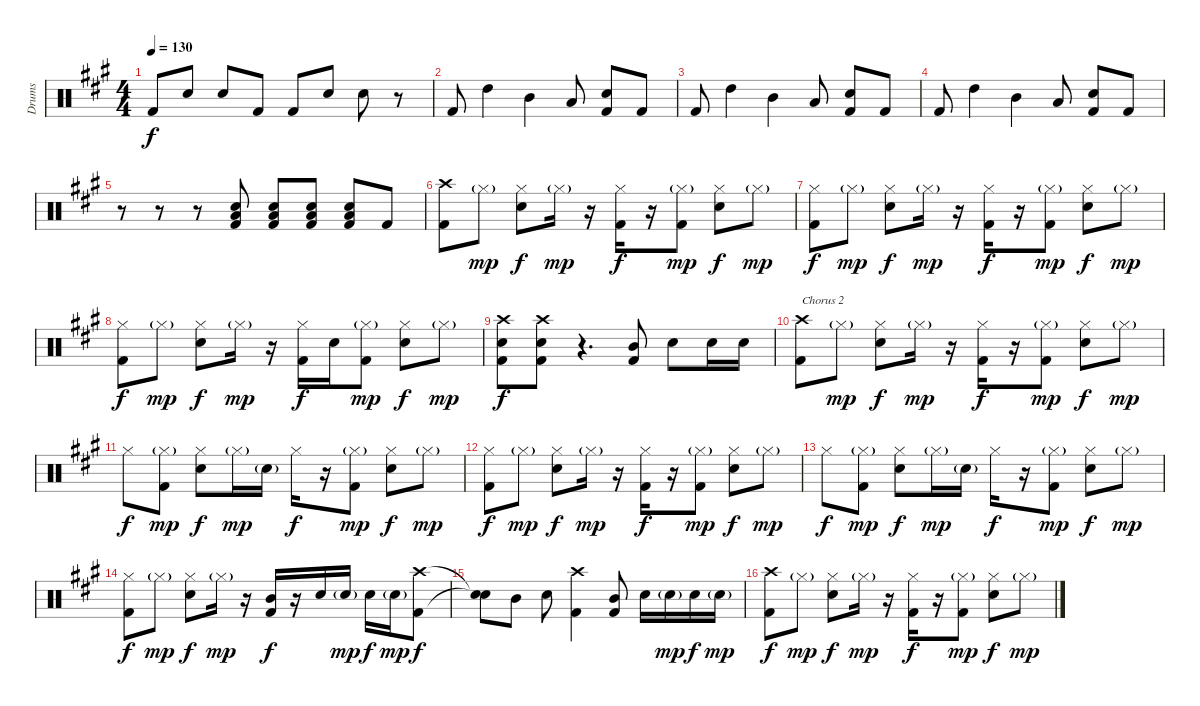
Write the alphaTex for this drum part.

\track ("Drums" "Drums") {instrument percussion}
\staff {score}
\articulation defaults
\ts (4 4)
\tempo 130
\clef neutral
\ks a "Kick (hit) 2".8{dy f} "Electric Snare (hit)".8 "Electric Snare (hit)".8 "Kick (hit) 2".8 "Kick (hit) 2".8 "Electric Snare (hit)".8 "Electric Snare (hit)".8
r.8 |
"Kick (hit) 2".8 "High Tom (hit)".4 "Mid Tom (hit)".4 "Low Tom (hit)".8 ("Electric Snare (hit)" "Kick (hit) 2").8 "Kick (hit) 2".8 |
"Kick (hit) 2".8 "High Tom (hit)".4 "Mid Tom (hit)".4 "Low Tom (hit)".8 ("Electric Snare (hit)" "Kick (hit) 2").8 "Kick (hit) 2".8 |
"Kick (hit) 2".8 "High Tom (hit)".4 "Mid Tom (hit)".4 "Low Tom (hit)".8 ("Electric Snare (hit)" "Kick (hit) 2").8 "Kick (hit) 2".8 |
r.8 r.8 r.8 ("Electric Snare (hit)" "Low Floor Tom (hit)" "Kick (hit) 2").8 ("Electric Snare (hit)" "Low Floor Tom (hit)" "Kick (hit) 2").8 ("Electric Snare (hit)" "Low Floor Tom (hit)" "Kick (hit) 2").8 ("Electric Snare (hit)" "Low Floor Tom (hit)" "Kick (hit) 2").8 "Kick (hit) 2".8 |
("Crash high (hit)" "Kick (hit) 2").8 "Hi-Hat (closed)"{g}.8{dy mp} ("Hi-Hat (closed)" "Electric Snare (hit)").8{dy f} "Hi-Hat (closed)"{g}.16{dy mp} r.16 ("Hi-Hat (closed)" "Kick (hit) 2").16{dy f} r.16 ("Hi-Hat (closed)"{g} "Kick (hit) 2").8{dy mp} ("Hi-Hat (closed)" "Electric Snare (hit)").8{dy f} "Hi-Hat (closed)"{g}.8{dy mp} |
("Hi-Hat (closed)" "Kick (hit) 2").8{dy f} "Hi-Hat (closed)"{g}.8{dy mp} ("Hi-Hat (closed)" "Electric Snare (hit)").8{dy f} "Hi-Hat (closed)"{g}.16{dy mp} r.16 ("Hi-Hat (closed)" "Kick (hit) 2").16{dy f} r.16 ("Hi-Hat (closed)"{g} "Kick (hit) 2").8{dy mp} ("Hi-Hat (closed)" "Electric Snare (hit)").8{dy f} "Hi-Hat (closed)"{g}.8{dy mp} |
("Hi-Hat (closed)" "Kick (hit) 2").8{dy f} "Hi-Hat (closed)"{g}.8{dy mp} ("Hi-Hat (closed)" "Electric Snare (hit)").8{dy f} "Hi-Hat (closed)"{g}.16{dy mp} r.16 ("Hi-Hat (closed)" "Kick (hit) 2").16{dy f} "Electric Snare (hit)".16 ("Hi-Hat (closed)"{g} "Kick (hit) 2").8{dy mp} ("Hi-Hat (closed)" "Electric Snare (hit)").8{dy f} "Hi-Hat (closed)"{g}.8{dy mp} |
("Crash high (hit)" "Electric Snare (hit)" "Kick (hit) 2").8{dy f} ("Crash high (hit)" "Electric Snare (hit)" "Kick (hit) 2").8 r.4{d} ("Mid Tom (hit)" "Kick (hit) 2").8 "Electric Snare (hit)".8 "Electric Snare (hit)".16 "Electric Snare (hit)".16 |
("Crash high (hit)" "Kick (hit) 2").8{txt "Chorus 2"} "Hi-Hat (closed)"{g}.8{dy mp} ("Hi-Hat (closed)" "Electric Snare (hit)").8{dy f} "Hi-Hat (closed)"{g}.16{dy mp} r.16 ("Hi-Hat (closed)" "Kick (hit) 2").16{dy f} r.16 ("Hi-Hat (closed)"{g} "Kick (hit) 2").8{dy mp} ("Hi-Hat (closed)" "Electric Snare (hit)").8{dy f} "Hi-Hat (closed)"{g}.8{dy mp} |
"Hi-Hat (closed)".8{dy f} ("Hi-Hat (closed)"{g} "Kick (hit) 2").8{dy mp} ("Hi-Hat (closed)" "Electric Snare (hit)").8{dy f} "Hi-Hat (closed)"{g}.16{dy mp} "Electric Snare (hit)"{g}.16 "Hi-Hat (closed)".16{dy f} r.16 ("Hi-Hat (closed)"{g} "Kick (hit) 2").8{dy mp} ("Hi-Hat (closed)" "Electric Snare (hit)").8{dy f} "Hi-Hat (closed)"{g}.8{dy mp} |
("Hi-Hat (closed)" "Kick (hit) 2").8{dy f} "Hi-Hat (closed)"{g}.8{dy mp} ("Hi-Hat (closed)" "Electric Snare (hit)").8{dy f} "Hi-Hat (closed)"{g}.16{dy mp} r.16 ("Hi-Hat (closed)" "Kick (hit) 2").16{dy f} r.16 ("Hi-Hat (closed)"{g} "Kick (hit) 2").8{dy mp} ("Hi-Hat (closed)" "Electric Snare (hit)").8{dy f} "Hi-Hat (closed)"{g}.8{dy mp} |
"Hi-Hat (closed)".8{dy f} ("Hi-Hat (closed)"{g} "Kick (hit) 2").8{dy mp} ("Hi-Hat (closed)" "Electric Snare (hit)").8{dy f} "Hi-Hat (closed)"{g}.16{dy mp} "Electric Snare (hit)"{g}.16 "Hi-Hat (closed)".16{dy f} r.16 ("Hi-Hat (closed)"{g} "Kick (hit) 2").8{dy mp} ("Hi-Hat (closed)" "Electric Snare (hit)").8{dy f} "Hi-Hat (closed)"{g}.8{dy mp} |
("Hi-Hat (closed)" "Kick (hit) 2").8{dy f} "Hi-Hat (closed)"{g}.8{dy mp} ("Hi-Hat (closed)" "Electric Snare (hit)").8{dy f} "Hi-Hat (closed)"{g}.16{dy mp} r.16 ("Mid Tom (hit)" "Kick (hit) 2").16{dy f} r.16 "Electric Snare (hit)".16 "Electric Snare (hit)"{g}.16{dy mp} "Electric Snare (hit)".16{dy f} "Electric Snare (hit)"{g}.16{dy mp} ("Crash high (hit)" "Kick (hit) 2").8{dy f} |
("Snare (hit)"{t} "Snare (hit)"{t}).8 "Mid Tom (hit)".8 "Electric Snare (hit)".8 ("Crash high (hit)" "Kick (hit) 2").4 ("Mid Tom (hit)" "Kick (hit) 2").8 "Electric Snare (hit)".16 "Electric Snare (hit)"{g}.16{dy mp} "Electric Snare (hit)".16{dy f} "Electric Snare (hit)"{g}.16{dy mp} |
("Crash high (hit)" "Kick (hit) 2").8{dy f} "Hi-Hat (closed)"{g}.8{dy mp} ("Hi-Hat (closed)" "Electric Snare (hit)").8{dy f} "Hi-Hat (closed)"{g}.16{dy mp} r.16 ("Hi-Hat (closed)" "Kick (hit) 2").16{dy f} r.16 ("Hi-Hat (closed)"{g} "Kick (hit) 2").8{dy mp} ("Hi-Hat (closed)" "Electric Snare (hit)").8{dy f} "Hi-Hat (closed)"{g}.8{dy mp}
